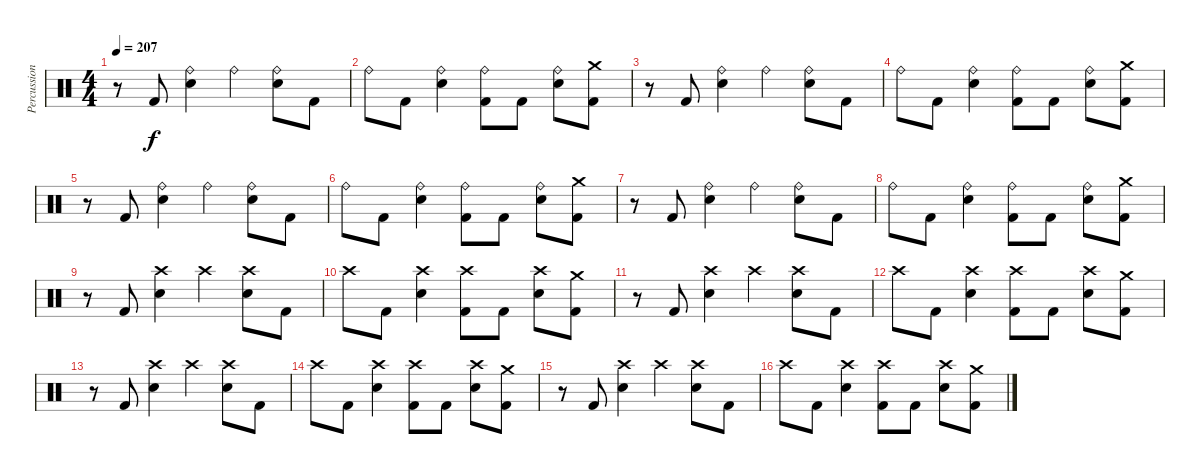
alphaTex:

\track ("Percussion" "Percussion") {instrument percussion}
\staff {score}
\articulation defaults
\ts (4 4)
\tempo 207
\clef neutral
\ks c
r.8{dy f} "Kick (hit) 2".8 ("Ride (bell)" "Snare (hit) 2").4 "Ride (bell)".4 ("Ride (bell)" "Snare (hit) 2").8 "Kick (hit) 2".8 |
"Ride (bell)".8 "Kick (hit) 2".8 ("Ride (bell)" "Snare (hit) 2").4 ("Ride (bell)" "Kick (hit) 2").8 "Kick (hit) 2".8 ("Ride (bell)" "Snare (hit) 2").8 ("Crash medium (hit)" "Kick (hit) 2").8 |
r.8 "Kick (hit) 2".8 ("Ride (bell)" "Snare (hit) 2").4 "Ride (bell)".4 ("Ride (bell)" "Snare (hit) 2").8 "Kick (hit) 2".8 |
"Ride (bell)".8 "Kick (hit) 2".8 ("Ride (bell)" "Snare (hit) 2").4 ("Ride (bell)" "Kick (hit) 2").8 "Kick (hit) 2".8 ("Ride (bell)" "Snare (hit) 2").8 ("Crash medium (hit)" "Kick (hit) 2").8 |
r.8 "Kick (hit) 2".8 ("Ride (bell)" "Snare (hit) 2").4 "Ride (bell)".4 ("Ride (bell)" "Snare (hit) 2").8 "Kick (hit) 2".8 |
"Ride (bell)".8 "Kick (hit) 2".8 ("Ride (bell)" "Snare (hit) 2").4 ("Ride (bell)" "Kick (hit) 2").8 "Kick (hit) 2".8 ("Ride (bell)" "Snare (hit) 2").8 ("Crash medium (hit)" "Kick (hit) 2").8 |
r.8 "Kick (hit) 2".8 ("Ride (bell)" "Snare (hit) 2").4 "Ride (bell)".4 ("Ride (bell)" "Snare (hit) 2").8 "Kick (hit) 2".8 |
"Ride (bell)".8 "Kick (hit) 2".8 ("Ride (bell)" "Snare (hit) 2").4 ("Ride (bell)" "Kick (hit) 2").8 "Kick (hit) 2".8 ("Ride (bell)" "Snare (hit) 2").8 ("Crash medium (hit)" "Kick (hit) 2").8 |
r.8 "Kick (hit) 2".8 ("Crash high (hit)" "Snare (hit) 2").4 "Crash high (hit)".4 ("Crash high (hit)" "Snare (hit) 2").8 "Kick (hit) 2".8 |
"Crash high (hit)".8 "Kick (hit) 2".8 ("Crash high (hit)" "Snare (hit) 2").4 ("Crash high (hit)" "Kick (hit) 2").8 "Kick (hit) 2".8 ("Crash high (hit)" "Snare (hit) 2").8 ("Crash medium (hit)" "Kick (hit) 2").8 |
r.8 "Kick (hit) 2".8 ("Crash high (hit)" "Snare (hit) 2").4 "Crash high (hit)".4 ("Crash high (hit)" "Snare (hit) 2").8 "Kick (hit) 2".8 |
"Crash high (hit)".8 "Kick (hit) 2".8 ("Crash high (hit)" "Snare (hit) 2").4 ("Crash high (hit)" "Kick (hit) 2").8 "Kick (hit) 2".8 ("Crash high (hit)" "Snare (hit) 2").8 ("Crash medium (hit)" "Kick (hit) 2").8 |
r.8 "Kick (hit) 2".8 ("Crash high (hit)" "Snare (hit) 2").4 "Crash high (hit)".4 ("Crash high (hit)" "Snare (hit) 2").8 "Kick (hit) 2".8 |
"Crash high (hit)".8 "Kick (hit) 2".8 ("Crash high (hit)" "Snare (hit) 2").4 ("Crash high (hit)" "Kick (hit) 2").8 "Kick (hit) 2".8 ("Crash high (hit)" "Snare (hit) 2").8 ("Crash medium (hit)" "Kick (hit) 2").8 |
r.8 "Kick (hit) 2".8 ("Crash high (hit)" "Snare (hit) 2").4 "Crash high (hit)".4 ("Crash high (hit)" "Snare (hit) 2").8 "Kick (hit) 2".8 |
"Crash high (hit)".8 "Kick (hit) 2".8 ("Crash high (hit)" "Snare (hit) 2").4 ("Crash high (hit)" "Kick (hit) 2").8 "Kick (hit) 2".8 ("Crash high (hit)" "Snare (hit) 2").8 ("Crash medium (hit)" "Kick (hit) 2").8
